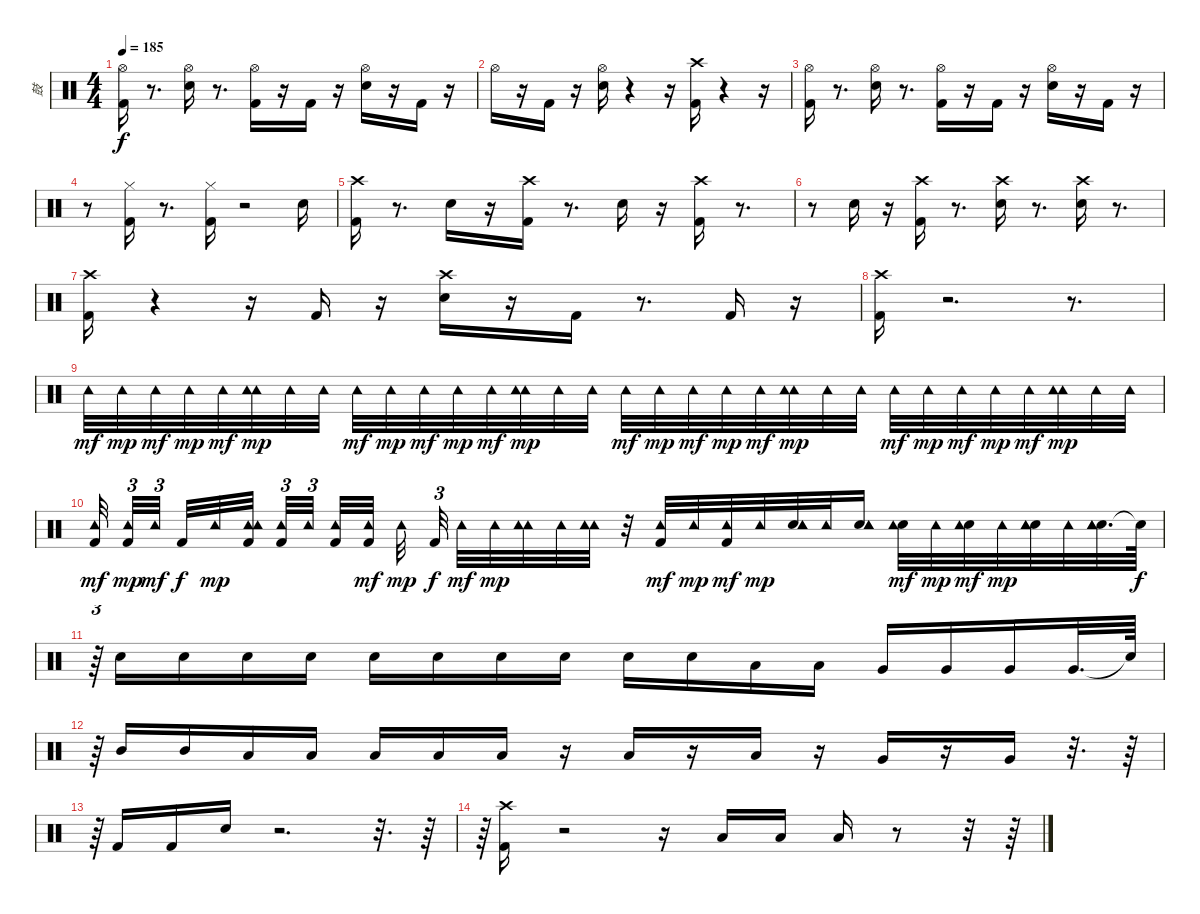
\track ("鼓" "鼓") {instrument percussion}
\staff {score}
\articulation defaults
\ts (4 4)
\tempo 185
\clef neutral
\ks c
("Hi-Hat (open)" "Kick (hit) 2").16{dy f} r.8{d} ("Hi-Hat (open)" "Snare (hit) 2").16 r.8{d} ("Hi-Hat (open)" "Kick (hit) 2").16 r.16 "Kick (hit) 2".16 r.16 ("Hi-Hat (open)" "Snare (hit) 2").16 r.16 "Kick (hit) 2".16 r.16 |
"Hi-Hat (open)".16 r.16 "Kick (hit) 2".16 r.16 ("Hi-Hat (open)" "Snare (hit) 2").16 r.4 r.16 ("Crash high (hit)" "Kick (hit) 2").16 r.4 r.16 |
("Hi-Hat (open)" "Kick (hit) 2").16 r.8{d} ("Hi-Hat (open)" "Snare (hit) 2").16 r.8{d} ("Hi-Hat (open)" "Kick (hit) 2").16 r.16 "Kick (hit) 2".16 r.16 ("Hi-Hat (open)" "Snare (hit) 2").16 r.16 "Kick (hit) 2".16 r.16 |
r.8 ("Kick (hit) 2" "Hi-Hat (closed)").16 r.8{d} ("Kick (hit) 2" "Hi-Hat (closed)").16 r.2 "Snare (hit) 2".16 |
("Crash high (hit)" "Kick (hit) 2").16 r.8{d} "Snare (hit) 2".16 r.16 ("Kick (hit) 2" "Crash high (hit)").16 r.8{d} "Snare (hit) 2".16 r.16 ("Kick (hit) 2" "Crash high (hit)").16 r.8{d} |
r.8 "Snare (hit) 2".16 r.16 ("Crash high (hit)" "Kick (hit) 2").16 r.8{d} ("Snare (hit) 2" "Crash high (hit)").16 r.8{d} ("Snare (hit) 2" "Crash high (hit)").16 r.8{d} |
("Crash high (hit)" "Kick (hit) 2").16 r.4 r.16 "Kick (hit) 2".16 r.16 ("Crash high (hit)" "Snare (hit) 2").16 r.16 "Kick (hit) 2".16 r.8{d} "Kick (hit) 2".16 r.16 |
("Kick (hit) 2" "Crash high (hit)").16 r.2{d} r.8{d} |
"Tambourine (hit)".32{dy mf} "Tambourine (hit)".32{dy mp} "Tambourine (hit)".32{dy mf} "Tambourine (hit)".32{dy mp} "Tambourine (hit)".32{dy mf} ("Tambourine (hit)" "Tambourine (hit)").32{dy mp} "Tambourine (hit)".32 "Tambourine (hit)".32 "Tambourine (hit)".32{dy mf} "Tambourine (hit)".32{dy mp} "Tambourine (hit)".32{dy mf} "Tambourine (hit)".32{dy mp} "Tambourine (hit)".32{dy mf} ("Tambourine (hit)" "Tambourine (hit)").32{dy mp} "Tambourine (hit)".32 "Tambourine (hit)".32 "Tambourine (hit)".32{dy mf} "Tambourine (hit)".32{dy mp} "Tambourine (hit)".32{dy mf} "Tambourine (hit)".32{dy mp} "Tambourine (hit)".32{dy mf} ("Tambourine (hit)" "Tambourine (hit)").32{dy mp} "Tambourine (hit)".32 "Tambourine (hit)".32 "Tambourine (hit)".32{dy mf} "Tambourine (hit)".32{dy mp} "Tambourine (hit)".32{dy mf} "Tambourine (hit)".32{dy mp} "Tambourine (hit)".32{dy mf} ("Tambourine (hit)" "Tambourine (hit)").32{dy mp} "Tambourine (hit)".32 "Tambourine (hit)".32 |
("Kick (hit) 2" "Tambourine (hit)").32{dy mf} ("Tambourine (hit)" "Kick (hit) 2").32{tu (3 2) dy mp} "Tambourine (hit)".32{tu (3 2) dy mf} "Kick (hit) 2".32{dy f} "Tambourine (hit)".32{dy mp} ("Kick (hit) 2" "Tambourine (hit)" "Tambourine (hit)").32 ("Tambourine (hit)" "Kick (hit) 2").32{tu (3 2)} "Tambourine (hit)".32{tu (3 2)} ("Kick (hit) 2" "Tambourine (hit)").32 ("Kick (hit) 2" "Tambourine (hit)").32{dy mf} "Tambourine (hit)".32{dy mp} "Kick (hit) 2".32{tu (3 2) dy f} "Tambourine (hit)".32{dy mf} "Tambourine (hit)".32{dy mp} ("Tambourine (hit)" "Tambourine (hit)").32 "Tambourine (hit)".32 ("Tambourine (hit)" "Tambourine (hit)").32 r.32 ("Kick (hit) 2" "Tambourine (hit)").32{dy mf} "Tambourine (hit)".32{dy mp} ("Kick (hit) 2" "Tambourine (hit)").32{dy mf} "Tambourine (hit)".32{dy mp} ("Snare (hit) 2" "Tambourine (hit)" "Tambourine (hit)").32 "Tambourine (hit)".32 ("Snare (hit) 2" "Tambourine (hit)" "Tambourine (hit)").16 ("Snare (hit) 2" "Tambourine (hit)").32{dy mf} "Tambourine (hit)".32{dy mp} ("Snare (hit) 2" "Tambourine (hit)").32{dy mf} "Tambourine (hit)".32{dy mp} ("Snare (hit) 2" "Tambourine (hit)" "Tambourine (hit)").32 "Tambourine (hit)".32 ("Snare (hit) 2" "Tambourine (hit)" "Tambourine (hit)").32{d} "Snare (hit)"{t}.64{dy f} |
r.64{tu (3 2)} "Snare (hit) 2".16 "Snare (hit) 2".16 "Snare (hit) 2".16 "Snare (hit) 2".16 "Snare (hit) 2".16 "Snare (hit) 2".16 "Snare (hit) 2".16 "Snare (hit) 2".16 "Snare (hit) 2".16 "Snare (hit) 2".16 "Low Tom (hit)".16 "Low Tom (hit)".16 "Very Low Tom (hit)".16 "Very Low Tom (hit)".16 "Very Low Tom (hit)".16 "Very Low Tom (hit)".32{d} "Snare (hit)"{t}.64 |
r.64{tu (3 2)} "Mid Tom (hit)".16 "Mid Tom (hit)".16 "Low Tom (hit)".16 "Low Tom (hit)".16 "Low Tom (hit)".16 "Low Tom (hit)".16 "Low Tom (hit)".16 r.16 "Low Tom (hit)".16 r.16 "Low Tom (hit)".16 r.16 "Very Low Tom (hit)".16 r.16 "Very Low Tom (hit)".16 r.32{d} r.64 |
r.64{tu (3 2)} "Kick (hit) 2".16 "Kick (hit) 2".16 "Snare (hit) 2".16 r.2{d} r.32{d} r.64 |
r.64{tu (3 2)} ("Kick (hit) 2" "Crash high (hit)").16 r.2 r.16 "Low Floor Tom (hit)".16 "Low Floor Tom (hit)".16 "Low Floor Tom (hit)".16 r.8 r.32 r.64
